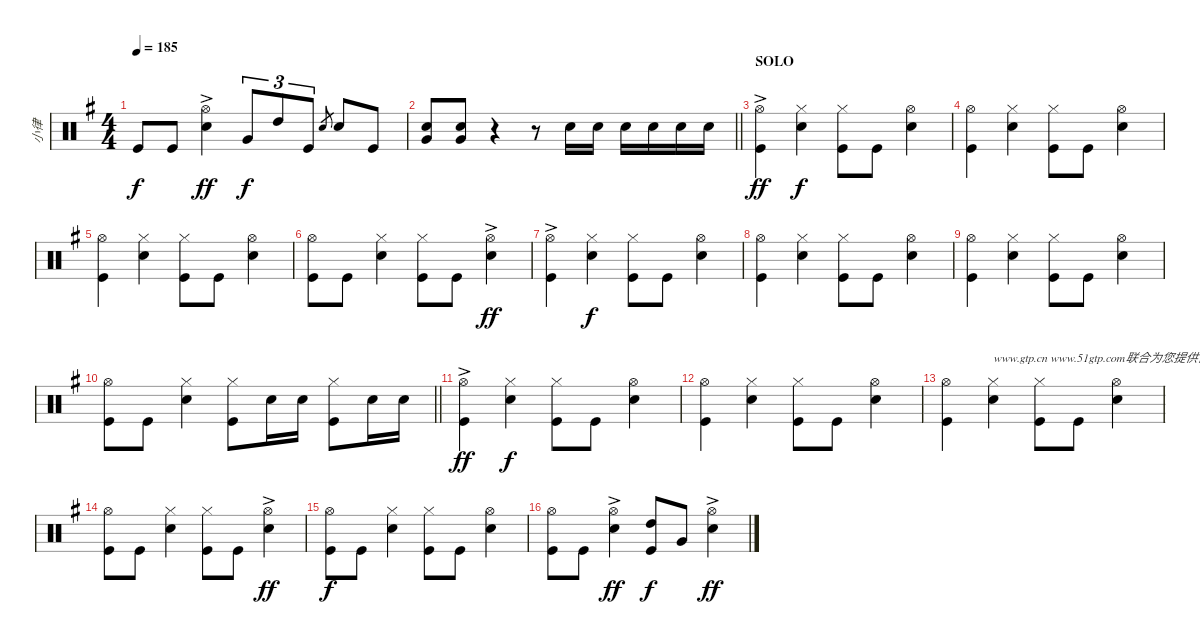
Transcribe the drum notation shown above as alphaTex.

\track ("小律" "小律") {instrument percussion}
\staff {score}
\articulation defaults
\ts (4 4)
\tempo 185
\clef neutral
\ks g "Kick (hit)".8{dy f} "Kick (hit)".8
("Snare (hit) 2" "Hi-Hat (open)"{ac}).4{dy ff} "Very Low Tom (hit)".8{tu (3 2) dy f} "High Tom (hit)".8{tu (3 2)} "Kick (hit)".8{tu (3 2)} "Snare (hit) 2".8{gr} "Snare (hit) 2".8 "Kick (hit)".8 |
\barLineRight lightlight
("Very Low Tom (hit)" "Snare (hit) 2").8 ("Snare (hit) 2" "Very Low Tom (hit)").8 r.4 r.8 "Snare (hit) 2".16 "Snare (hit) 2".16 "Snare (hit) 2".16 "Snare (hit) 2".16 "Snare (hit) 2".16 "Snare (hit) 2".16 |
\section ("" "SOLO")
("Hi-Hat (open)" "Kick (hit)"{ac}).4{dy ff} ("Hi-Hat (closed)" "Snare (hit) 2").4{dy f} ("Hi-Hat (closed)" "Kick (hit)").8 "Kick (hit)".8 ("Hi-Hat (open)" "Snare (hit) 2").4 |
("Hi-Hat (open)" "Kick (hit)").4 ("Hi-Hat (closed)" "Snare (hit) 2").4 ("Hi-Hat (closed)" "Kick (hit)").8 "Kick (hit)".8 ("Hi-Hat (open)" "Snare (hit) 2").4 |
("Hi-Hat (open)" "Kick (hit)").4 ("Hi-Hat (closed)" "Snare (hit) 2").4 ("Hi-Hat (closed)" "Kick (hit)").8 "Kick (hit)".8 ("Hi-Hat (open)" "Snare (hit) 2").4 |
("Hi-Hat (open)" "Kick (hit)").8 "Kick (hit)".8 ("Hi-Hat (closed)" "Snare (hit) 2").4 ("Hi-Hat (closed)" "Kick (hit)").8 "Kick (hit)".8 ("Hi-Hat (open)" "Snare (hit) 2"{ac}).4{dy ff} |
("Hi-Hat (open)" "Kick (hit)"{ac}).4 ("Hi-Hat (closed)" "Snare (hit) 2").4{dy f} ("Hi-Hat (closed)" "Kick (hit)").8 "Kick (hit)".8 ("Hi-Hat (open)" "Snare (hit) 2").4 |
("Hi-Hat (open)" "Kick (hit)").4 ("Hi-Hat (closed)" "Snare (hit) 2").4 ("Hi-Hat (closed)" "Kick (hit)").8 "Kick (hit)".8 ("Hi-Hat (open)" "Snare (hit) 2").4 |
("Hi-Hat (open)" "Kick (hit)").4 ("Hi-Hat (closed)" "Snare (hit) 2").4 ("Hi-Hat (closed)" "Kick (hit)").8 "Kick (hit)".8 ("Hi-Hat (open)" "Snare (hit) 2").4 |
\barLineRight lightlight
("Hi-Hat (open)" "Kick (hit)").8 "Kick (hit)".8 ("Hi-Hat (closed)" "Snare (hit) 2").4 ("Hi-Hat (closed)" "Kick (hit)").8 "Snare (hit) 2".16 "Snare (hit) 2".16 ("Hi-Hat (closed)" "Kick (hit)").8 "Snare (hit) 2".16 "Snare (hit) 2".16 |
("Hi-Hat (open)" "Kick (hit)"{ac}).4{dy ff} ("Hi-Hat (closed)" "Snare (hit) 2").4{dy f} ("Hi-Hat (closed)" "Kick (hit)").8 "Kick (hit)".8 ("Hi-Hat (open)" "Snare (hit) 2").4 |
("Hi-Hat (open)" "Kick (hit)").4 ("Hi-Hat (closed)" "Snare (hit) 2").4 ("Hi-Hat (closed)" "Kick (hit)").8 "Kick (hit)".8 ("Hi-Hat (open)" "Snare (hit) 2").4 |
("Hi-Hat (open)" "Kick (hit)").4 ("Hi-Hat (closed)" "Snare (hit) 2").4{txt "www.gtp.cn www.51gtp.com联合为您提供优秀的GTP!"} ("Hi-Hat (closed)" "Kick (hit)").8 "Kick (hit)".8 ("Hi-Hat (open)" "Snare (hit) 2").4 |
("Hi-Hat (open)" "Kick (hit)").8 "Kick (hit)".8 ("Hi-Hat (closed)" "Snare (hit) 2").4 ("Hi-Hat (closed)" "Kick (hit)").8 "Kick (hit)".8 ("Hi-Hat (open)"{ac} "Snare (hit) 2"{ac}).4{dy ff} |
("Hi-Hat (open)" "Kick (hit)").8{dy f} "Kick (hit)".8 ("Hi-Hat (closed)" "Snare (hit) 2").4 ("Hi-Hat (closed)" "Kick (hit)").8 "Kick (hit)".8 ("Hi-Hat (open)" "Snare (hit) 2").4 |
("Hi-Hat (open)" "Kick (hit)").8 "Kick (hit)".8 ("Snare (hit) 2" "Hi-Hat (open)"{ac}).4{dy ff} ("High Tom (hit)" "Kick (hit)").8{dy f beam Up} "Very Low Tom (hit)".8{beam Up} ("Hi-Hat (open)"{ac} "Snare (hit) 2").4{dy ff}
